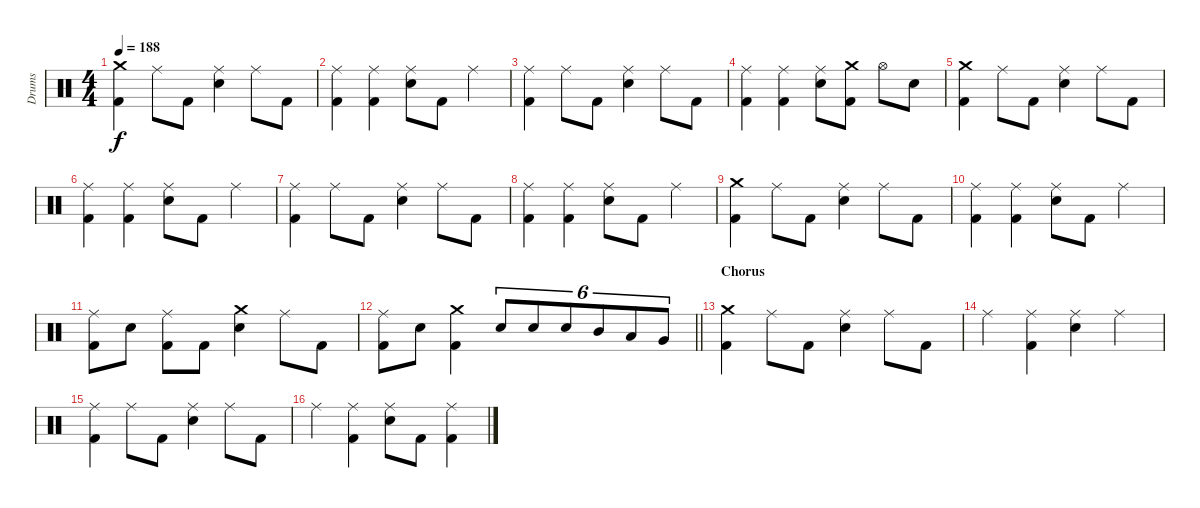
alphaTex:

\track ("Drums" "Drums") {instrument percussion}
\staff {score}
\articulation defaults
\ts (4 4)
\tempo 188
\clef neutral
\ks c
("Crash medium (hit)" "Kick (hit) 2").4{dy f} "Ride (middle)".8 "Kick (hit) 2".8 ("Ride (middle)" "Electric Snare (hit)").4 "Ride (middle)".8 "Kick (hit) 2".8 |
("Ride (middle)" "Kick (hit) 2").4 ("Ride (middle)" "Kick (hit) 2").4 ("Ride (middle)" "Electric Snare (hit)").8 "Kick (hit) 2".8 "Ride (middle)".4 |
("Ride (middle)" "Kick (hit) 2").4 "Ride (middle)".8 "Kick (hit) 2".8 ("Ride (middle)" "Electric Snare (hit)").4 "Ride (middle)".8 "Kick (hit) 2".8 |
("Ride (middle)" "Kick (hit) 2").4 ("Ride (middle)" "Kick (hit) 2").4 ("Ride (middle)" "Electric Snare (hit)").8 ("Crash medium (hit)" "Kick (hit) 2").8 "Hi-Hat (open)".8 "Electric Snare (hit)".8 |
("Crash medium (hit)" "Kick (hit) 2").4 "Ride (middle)".8 "Kick (hit) 2".8 ("Ride (middle)" "Electric Snare (hit)").4 "Ride (middle)".8 "Kick (hit) 2".8 |
("Ride (middle)" "Kick (hit) 2").4 ("Ride (middle)" "Kick (hit) 2").4 ("Ride (middle)" "Electric Snare (hit)").8 "Kick (hit) 2".8 "Ride (middle)".4 |
("Ride (middle)" "Kick (hit) 2").4 "Ride (middle)".8 "Kick (hit) 2".8 ("Ride (middle)" "Electric Snare (hit)").4 "Ride (middle)".8 "Kick (hit) 2".8 |
("Ride (middle)" "Kick (hit) 2").4 ("Ride (middle)" "Kick (hit) 2").4 ("Ride (middle)" "Electric Snare (hit)").8 "Kick (hit) 2".8 "Ride (middle)".4 |
("Crash medium (hit)" "Kick (hit) 2").4 "Ride (middle)".8 "Kick (hit) 2".8 ("Ride (middle)" "Electric Snare (hit)").4 "Ride (middle)".8 "Kick (hit) 2".8 |
("Ride (middle)" "Kick (hit) 2").4 ("Ride (middle)" "Kick (hit) 2").4 ("Ride (middle)" "Electric Snare (hit)").8 "Kick (hit) 2".8 "Ride (middle)".4 |
("Ride (middle)" "Kick (hit) 2").8 "Electric Snare (hit)".8 ("Ride (middle)" "Kick (hit) 2").8 "Kick (hit) 2".8 ("Crash medium (hit)" "Electric Snare (hit)").4 "Ride (middle)".8 "Kick (hit) 2".8 |
\barLineRight lightlight
("Ride (middle)" "Kick (hit) 2").8 "Electric Snare (hit)".8 ("Crash medium (hit)" "Kick (hit) 2").4 "Electric Snare (hit)".8{tu (6 4)} "Electric Snare (hit)".8{tu (6 4)} "Electric Snare (hit)".8{tu (6 4)} "Mid Tom (hit)".8{tu (6 4)} "Low Tom (hit)".8{tu (6 4)} "Very Low Tom (hit)".8{tu (6 4)} |
\section ("" "Chorus")
("Crash medium (hit)" "Kick (hit) 2").4 "Ride (middle)".8 "Kick (hit) 2".8 ("Ride (middle)" "Electric Snare (hit)").4 "Ride (middle)".8 "Kick (hit) 2".8 |
"Ride (middle)".4 ("Ride (middle)" "Kick (hit) 2").4 ("Ride (middle)" "Electric Snare (hit)").4 "Ride (middle)".4 |
("Ride (middle)" "Kick (hit) 2").4 "Ride (middle)".8 "Kick (hit) 2".8 ("Ride (middle)" "Electric Snare (hit)").4 "Ride (middle)".8 "Kick (hit) 2".8 |
"Ride (middle)".4 ("Ride (middle)" "Kick (hit) 2").4 ("Ride (middle)" "Electric Snare (hit)").8 "Kick (hit) 2".8 ("Ride (middle)" "Kick (hit) 2").4
